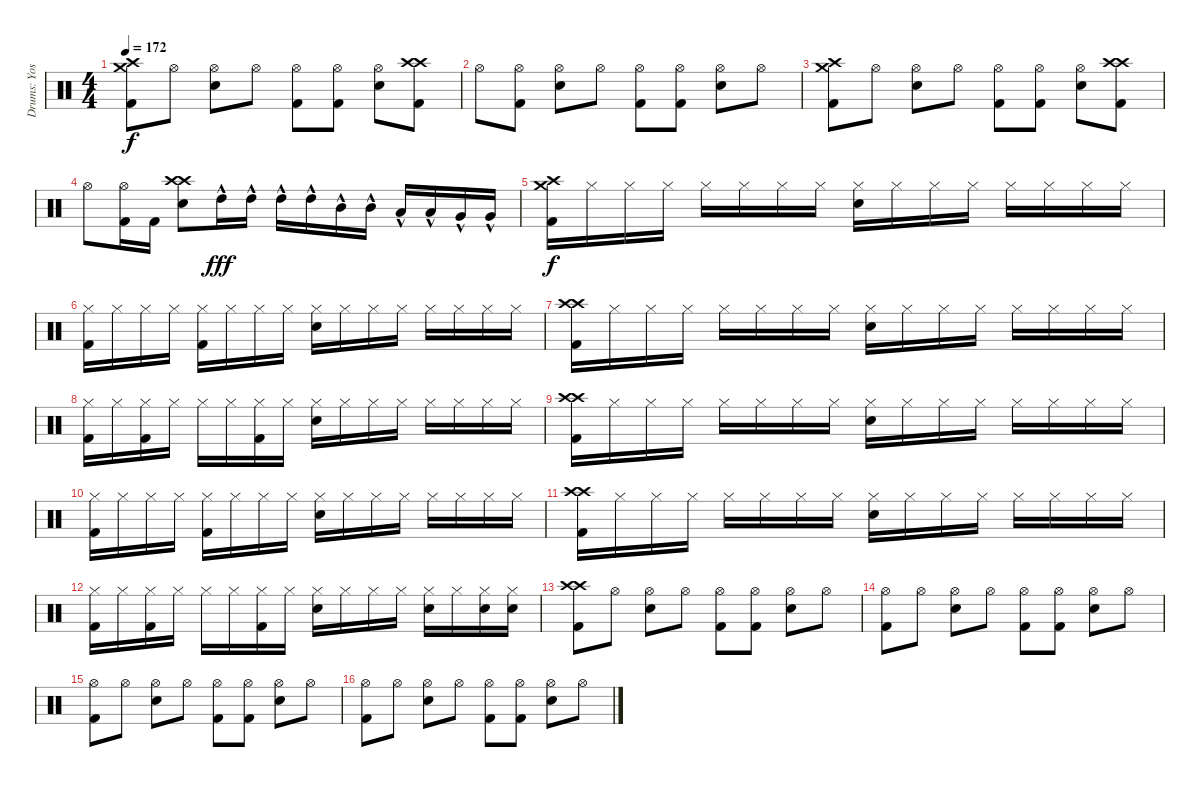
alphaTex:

\track ("Drums: Yoshiki" "Drums: Yos") {instrument percussion}
\staff {score}
\articulation defaults
\ts (4 4)
\tempo 172
\clef neutral
\ks c
("Crash high (hit)" "Crash medium (hit)" "Kick (hit) 2").8{dy f} "Hi-Hat (open)".8 ("Hi-Hat (open)" "Snare (hit) 2").8 "Hi-Hat (open)".8 ("Hi-Hat (open)" "Kick (hit) 2").8 ("Hi-Hat (open)" "Kick (hit) 2").8 ("Hi-Hat (open)" "Snare (hit) 2").8 ("Crash high (hit)" "Crash high (hit)" "Kick (hit) 2").8 |
"Hi-Hat (open)".8 ("Hi-Hat (open)" "Kick (hit) 2").8 ("Hi-Hat (open)" "Snare (hit) 2").8 "Hi-Hat (open)".8 ("Hi-Hat (open)" "Kick (hit) 2").8 ("Hi-Hat (open)" "Kick (hit) 2").8 ("Hi-Hat (open)" "Snare (hit) 2").8 "Hi-Hat (open)".8 |
("Crash high (hit)" "Crash medium (hit)" "Kick (hit) 2").8 "Hi-Hat (open)".8 ("Hi-Hat (open)" "Snare (hit) 2").8 "Hi-Hat (open)".8 ("Hi-Hat (open)" "Kick (hit) 2").8 ("Hi-Hat (open)" "Kick (hit) 2").8 ("Hi-Hat (open)" "Snare (hit) 2").8 ("Crash high (hit)" "Crash high (hit)" "Kick (hit) 2").8 |
"Hi-Hat (open)".8 ("Hi-Hat (open)" "Kick (hit) 2").16 "Kick (hit) 2".16 ("Crash high (hit)" "Crash high (hit)" "Snare (hit) 2").8 "High Tom (hit)"{hac}.16{dy fff} "High Tom (hit)"{hac}.16 "High Tom (hit)"{hac}.16 "High Tom (hit)"{hac}.16 "Mid Tom (hit)"{hac}.16 "Mid Tom (hit)"{hac}.16 "Low Tom (hit)"{hac}.16 "Low Tom (hit)"{hac}.16 "Very Low Tom (hit)"{hac}.16 "Very Low Tom (hit)"{hac}.16 |
("Crash high (hit)" "Crash medium (hit)" "Kick (hit) 2").16{dy f} "Hi-Hat (closed)".16 "Hi-Hat (closed)".16 "Hi-Hat (closed)".16 "Hi-Hat (closed)".16 "Hi-Hat (closed)".16 "Hi-Hat (closed)".16 "Hi-Hat (closed)".16 ("Hi-Hat (closed)" "Snare (hit) 2").16 "Hi-Hat (closed)".16 "Hi-Hat (closed)".16 "Hi-Hat (closed)".16 "Hi-Hat (closed)".16 "Hi-Hat (closed)".16 "Hi-Hat (closed)".16 "Hi-Hat (closed)".16 |
("Hi-Hat (closed)" "Kick (hit) 2").16 "Hi-Hat (closed)".16 "Hi-Hat (closed)".16 "Hi-Hat (closed)".16 ("Hi-Hat (closed)" "Kick (hit) 2").16 "Hi-Hat (closed)".16 "Hi-Hat (closed)".16 "Hi-Hat (closed)".16 ("Hi-Hat (closed)" "Snare (hit) 2").16 "Hi-Hat (closed)".16 "Hi-Hat (closed)".16 "Hi-Hat (closed)".16 "Hi-Hat (closed)".16 "Hi-Hat (closed)".16 "Hi-Hat (closed)".16 "Hi-Hat (closed)".16 |
("Crash high (hit)" "Crash high (hit)" "Kick (hit) 2").16 "Hi-Hat (closed)".16 "Hi-Hat (closed)".16 "Hi-Hat (closed)".16 "Hi-Hat (closed)".16 "Hi-Hat (closed)".16 "Hi-Hat (closed)".16 "Hi-Hat (closed)".16 ("Hi-Hat (closed)" "Snare (hit) 2").16 "Hi-Hat (closed)".16 "Hi-Hat (closed)".16 "Hi-Hat (closed)".16 "Hi-Hat (closed)".16 "Hi-Hat (closed)".16 "Hi-Hat (closed)".16 "Hi-Hat (closed)".16 |
("Hi-Hat (closed)" "Kick (hit) 2").16 "Hi-Hat (closed)".16 ("Hi-Hat (closed)" "Kick (hit) 2").16 "Hi-Hat (closed)".16 "Hi-Hat (closed)".16 "Hi-Hat (closed)".16 ("Hi-Hat (closed)" "Kick (hit) 2").16 "Hi-Hat (closed)".16 ("Hi-Hat (closed)" "Snare (hit) 2").16 "Hi-Hat (closed)".16 "Hi-Hat (closed)".16 "Hi-Hat (closed)".16 "Hi-Hat (closed)".16 "Hi-Hat (closed)".16 "Hi-Hat (closed)".16 "Hi-Hat (closed)".16 |
("Crash high (hit)" "Crash high (hit)" "Kick (hit) 2").16 "Hi-Hat (closed)".16 "Hi-Hat (closed)".16 "Hi-Hat (closed)".16 "Hi-Hat (closed)".16 "Hi-Hat (closed)".16 "Hi-Hat (closed)".16 "Hi-Hat (closed)".16 ("Hi-Hat (closed)" "Snare (hit) 2").16 "Hi-Hat (closed)".16 "Hi-Hat (closed)".16 "Hi-Hat (closed)".16 "Hi-Hat (closed)".16 "Hi-Hat (closed)".16 "Hi-Hat (closed)".16 "Hi-Hat (closed)".16 |
("Hi-Hat (closed)" "Kick (hit) 2").16 "Hi-Hat (closed)".16 "Hi-Hat (closed)".16 "Hi-Hat (closed)".16 ("Hi-Hat (closed)" "Kick (hit) 2").16 "Hi-Hat (closed)".16 "Hi-Hat (closed)".16 "Hi-Hat (closed)".16 ("Hi-Hat (closed)" "Snare (hit) 2").16 "Hi-Hat (closed)".16 "Hi-Hat (closed)".16 "Hi-Hat (closed)".16 "Hi-Hat (closed)".16 "Hi-Hat (closed)".16 "Hi-Hat (closed)".16 "Hi-Hat (closed)".16 |
("Crash high (hit)" "Crash high (hit)" "Kick (hit) 2").16 "Hi-Hat (closed)".16 "Hi-Hat (closed)".16 "Hi-Hat (closed)".16 "Hi-Hat (closed)".16 "Hi-Hat (closed)".16 "Hi-Hat (closed)".16 "Hi-Hat (closed)".16 ("Hi-Hat (closed)" "Snare (hit) 2").16 "Hi-Hat (closed)".16 "Hi-Hat (closed)".16 "Hi-Hat (closed)".16 "Hi-Hat (closed)".16 "Hi-Hat (closed)".16 "Hi-Hat (closed)".16 "Hi-Hat (closed)".16 |
("Hi-Hat (closed)" "Kick (hit) 2").16 "Hi-Hat (closed)".16 ("Hi-Hat (closed)" "Kick (hit) 2").16 "Hi-Hat (closed)".16 "Hi-Hat (closed)".16 "Hi-Hat (closed)".16 ("Hi-Hat (closed)" "Kick (hit) 2").16 "Hi-Hat (closed)".16 ("Hi-Hat (closed)" "Snare (hit) 2").16 "Hi-Hat (closed)".16 "Hi-Hat (closed)".16 "Hi-Hat (closed)".16 ("Hi-Hat (closed)" "Snare (hit) 2").16 "Hi-Hat (closed)".16 ("Hi-Hat (closed)" "Snare (hit) 2").16 ("Hi-Hat (closed)" "Snare (hit) 2").16 |
("Crash high (hit)" "Crash high (hit)" "Kick (hit) 2").8 "Hi-Hat (open)".8 ("Hi-Hat (open)" "Snare (hit) 2").8 "Hi-Hat (open)".8 ("Hi-Hat (open)" "Kick (hit) 2").8 ("Hi-Hat (open)" "Kick (hit) 2").8 ("Hi-Hat (open)" "Snare (hit) 2").8 "Hi-Hat (open)".8 |
("Hi-Hat (open)" "Kick (hit) 2").8 "Hi-Hat (open)".8 ("Hi-Hat (open)" "Snare (hit) 2").8 "Hi-Hat (open)".8 ("Hi-Hat (open)" "Kick (hit) 2").8 ("Hi-Hat (open)" "Kick (hit) 2").8 ("Hi-Hat (open)" "Snare (hit) 2").8 "Hi-Hat (open)".8 |
("Hi-Hat (open)" "Kick (hit) 2").8 "Hi-Hat (open)".8 ("Hi-Hat (open)" "Snare (hit) 2").8 "Hi-Hat (open)".8 ("Hi-Hat (open)" "Kick (hit) 2").8 ("Hi-Hat (open)" "Kick (hit) 2").8 ("Hi-Hat (open)" "Snare (hit) 2").8 "Hi-Hat (open)".8 |
("Hi-Hat (open)" "Kick (hit) 2").8 "Hi-Hat (open)".8 ("Hi-Hat (open)" "Snare (hit) 2").8 "Hi-Hat (open)".8 ("Hi-Hat (open)" "Kick (hit) 2").8 ("Hi-Hat (open)" "Kick (hit) 2").8 ("Hi-Hat (open)" "Snare (hit) 2").8 "Hi-Hat (open)".8
